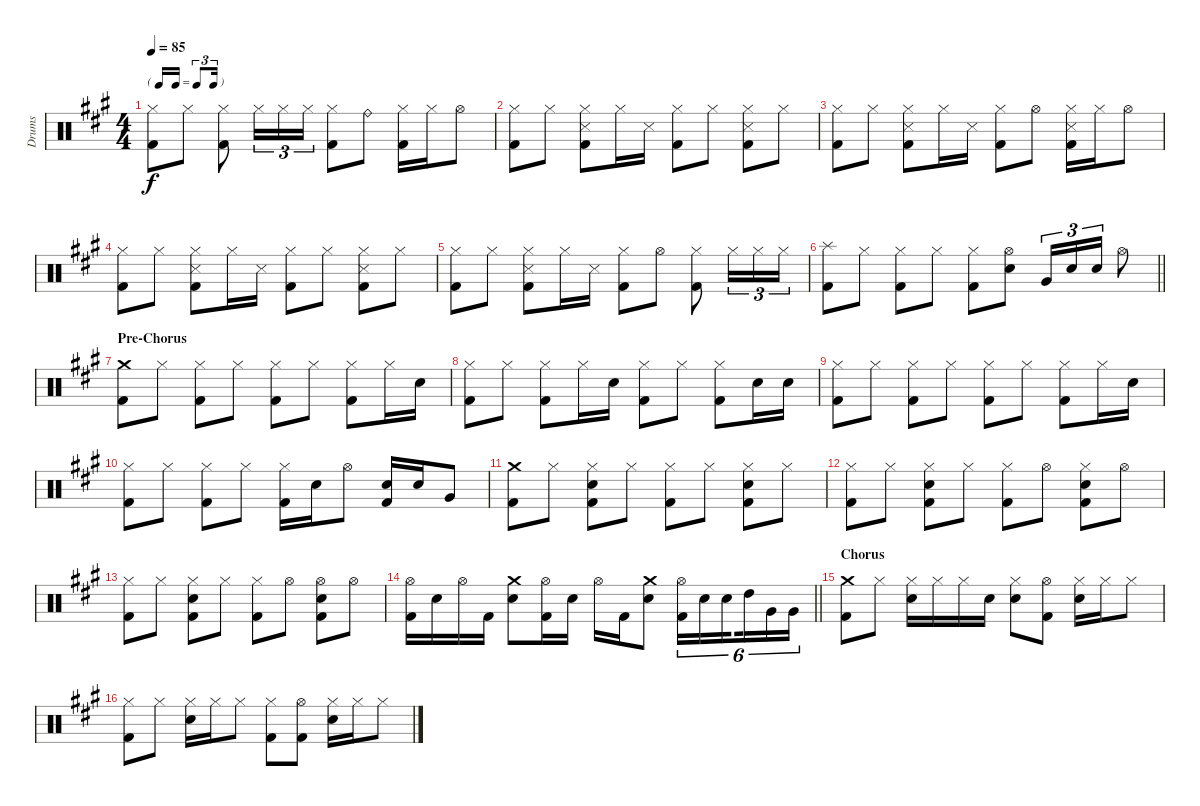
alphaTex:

\track ("Drums" "Drums") {instrument percussion}
\staff {score}
\articulation defaults
\ts (4 4)
\tf triplet16th
\tempo 85
\clef neutral
\ks a
("Hi-Hat (closed)" "Kick (hit) 2").8{dy f} "Hi-Hat (closed)".8 ("Hi-Hat (closed)" "Kick (hit) 2").8 "Hi-Hat (closed)".16{tu (3 2)} "Hi-Hat (closed)".16{tu (3 2)} "Hi-Hat (closed)".16{tu (3 2)} ("Hi-Hat (closed)" "Kick (hit) 2").8 "Ride (bell)".8 ("Hi-Hat (closed)" "Kick (hit) 2").16 "Hi-Hat (closed)".16 "Hi-Hat (open)".8 |
("Hi-Hat (closed)" "Kick (hit) 2").8 "Hi-Hat (closed)".8 ("Hi-Hat (closed)" "Snare (side stick) 3" "Kick (hit) 2").8 "Hi-Hat (closed)".16 "Snare (side stick) 3".16 ("Hi-Hat (closed)" "Kick (hit) 2").8 "Hi-Hat (closed)".8 ("Hi-Hat (closed)" "Snare (side stick) 3" "Kick (hit) 2").8 "Hi-Hat (closed)".8 |
("Hi-Hat (closed)" "Kick (hit) 2").8 "Hi-Hat (closed)".8 ("Hi-Hat (closed)" "Snare (side stick) 3" "Kick (hit) 2").8 "Hi-Hat (closed)".16 "Snare (side stick) 3".16 ("Hi-Hat (closed)" "Kick (hit) 2").8 "Hi-Hat (open)".8 ("Hi-Hat (closed)" "Snare (side stick) 3" "Kick (hit) 2").16 "Hi-Hat (closed)".16 "Hi-Hat (open)".8 |
("Hi-Hat (closed)" "Kick (hit) 2").8 "Hi-Hat (closed)".8 ("Hi-Hat (closed)" "Snare (side stick) 3" "Kick (hit) 2").8 "Hi-Hat (closed)".16 "Snare (side stick) 3".16 ("Hi-Hat (closed)" "Kick (hit) 2").8 "Hi-Hat (closed)".8 ("Hi-Hat (closed)" "Snare (side stick) 3" "Kick (hit) 2").8 "Hi-Hat (closed)".8 |
("Hi-Hat (closed)" "Kick (hit) 2").8 "Hi-Hat (closed)".8 ("Hi-Hat (closed)" "Snare (side stick) 3" "Kick (hit) 2").8 "Hi-Hat (closed)".16 "Snare (side stick) 3".16 ("Hi-Hat (closed)" "Kick (hit) 2").8 "Hi-Hat (open)".8 ("Hi-Hat (closed)" "Kick (hit) 2").8 "Hi-Hat (closed)".16{tu (3 2)} "Hi-Hat (closed)".16{tu (3 2)} "Hi-Hat (closed)".16{tu (3 2)} |
\barLineRight lightlight
("Splash (hit)" "Kick (hit) 2").8 "Hi-Hat (closed)".8 ("Hi-Hat (closed)" "Kick (hit) 2").8 "Hi-Hat (closed)".8 ("Hi-Hat (closed)" "Kick (hit) 2").8 ("Hi-Hat (open)" "Snare (hit) 2").8 "Very Low Tom (hit)".16{tu (3 2)} "Snare (hit) 2".16{tu (3 2)} "Snare (hit) 2".16{tu (3 2)} "Hi-Hat (open)".8 |
\section ("" "Pre-Chorus")
("Crash medium (hit)" "Kick (hit) 2").8 "Hi-Hat (closed)".8 ("Hi-Hat (closed)" "Kick (hit) 2").8 "Hi-Hat (closed)".8 ("Hi-Hat (closed)" "Kick (hit) 2").8 "Hi-Hat (closed)".8 ("Hi-Hat (closed)" "Kick (hit) 2").8 "Hi-Hat (closed)".16 "Snare (hit) 2".16 |
("Hi-Hat (closed)" "Kick (hit) 2").8 "Hi-Hat (closed)".8 ("Hi-Hat (closed)" "Kick (hit) 2").8 "Hi-Hat (closed)".16 "Snare (hit) 2".16 ("Hi-Hat (closed)" "Kick (hit) 2").8 "Hi-Hat (closed)".8 ("Hi-Hat (closed)" "Kick (hit) 2").8 "Snare (hit) 2".16 "Snare (hit) 2".16 |
("Hi-Hat (closed)" "Kick (hit) 2").8 "Hi-Hat (closed)".8 ("Hi-Hat (closed)" "Kick (hit) 2").8 "Hi-Hat (closed)".8 ("Hi-Hat (closed)" "Kick (hit) 2").8 "Hi-Hat (closed)".8 ("Hi-Hat (closed)" "Kick (hit) 2").8 "Hi-Hat (closed)".16 "Snare (hit) 2".16 |
("Hi-Hat (closed)" "Kick (hit) 2").8 "Hi-Hat (closed)".8 ("Hi-Hat (closed)" "Kick (hit) 2").8 "Hi-Hat (closed)".8 ("Hi-Hat (closed)" "Kick (hit) 2").16 "Snare (hit) 2".16 "Hi-Hat (open)".8 ("Snare (hit) 2" "Kick (hit) 2").16 "Snare (hit) 2".16 "Very Low Tom (hit)".8 |
("Crash medium (hit)" "Kick (hit) 2").8 "Hi-Hat (closed)".8 ("Hi-Hat (closed)" "Snare (hit) 2" "Kick (hit) 2").8 "Hi-Hat (closed)".8 ("Hi-Hat (closed)" "Kick (hit) 2").8 "Hi-Hat (closed)".8 ("Hi-Hat (closed)" "Snare (hit) 2" "Kick (hit) 2").8 "Hi-Hat (closed)".8 |
("Hi-Hat (closed)" "Kick (hit) 2").8 "Hi-Hat (closed)".8 ("Hi-Hat (closed)" "Snare (hit) 2" "Kick (hit) 2").8 "Hi-Hat (closed)".8 ("Hi-Hat (closed)" "Kick (hit) 2").8 "Hi-Hat (open)".8 ("Hi-Hat (closed)" "Snare (hit) 2" "Kick (hit) 2").8 "Hi-Hat (open)".8 |
("Hi-Hat (closed)" "Kick (hit) 2").8 "Hi-Hat (closed)".8 ("Hi-Hat (closed)" "Snare (hit) 2" "Kick (hit) 2").8 "Hi-Hat (closed)".8 ("Hi-Hat (closed)" "Kick (hit) 2").8 "Hi-Hat (open)".8 ("Hi-Hat (open)" "Snare (hit) 2" "Kick (hit) 2").8 "Hi-Hat (open)".8 |
\barLineRight lightlight
("Hi-Hat (open)" "Kick (hit) 2").16 "Snare (hit) 2".16 "Hi-Hat (open)".16 "Kick (hit) 2".16 ("Crash medium (hit)" "Snare (hit) 2").8 ("Hi-Hat (open)" "Kick (hit) 2").16 "Snare (hit) 2".16 "Hi-Hat (open)".16 "Kick (hit) 2".16 ("Crash medium (hit)" "Snare (hit) 2").8 ("Hi-Hat (open)" "Kick (hit) 2").16{tu (6 4)} "Snare (hit) 2".16{tu (6 4)} "Snare (hit) 2".16{tu (6 4) beam splitsecondary} "High Tom (hit)".16{tu (6 4)} "Very Low Tom (hit)".16{tu (6 4)} "Very Low Tom (hit)".16{tu (6 4)} |
\section ("" "Chorus")
("Crash medium (hit)" "Kick (hit) 2").8 "Hi-Hat (closed)".8 ("Hi-Hat (closed)" "Snare (hit) 2").16 "Hi-Hat (closed)".16 "Hi-Hat (closed)".16 "Snare (hit) 2".16 ("Hi-Hat (closed)" "Snare (hit) 2").8 ("Hi-Hat (open)" "Kick (hit) 2").8 ("Hi-Hat (closed)" "Snare (hit) 2").16 "Hi-Hat (closed)".16 "Hi-Hat (closed)".8 |
("Hi-Hat (closed)" "Kick (hit) 2").8 "Hi-Hat (closed)".8 ("Hi-Hat (closed)" "Snare (hit) 2").16 "Hi-Hat (closed)".16 "Hi-Hat (closed)".8 ("Hi-Hat (closed)" "Kick (hit) 2").8 ("Hi-Hat (open)" "Kick (hit) 2").8 ("Hi-Hat (closed)" "Snare (hit) 2").16 "Hi-Hat (closed)".16 "Hi-Hat (closed)".8
